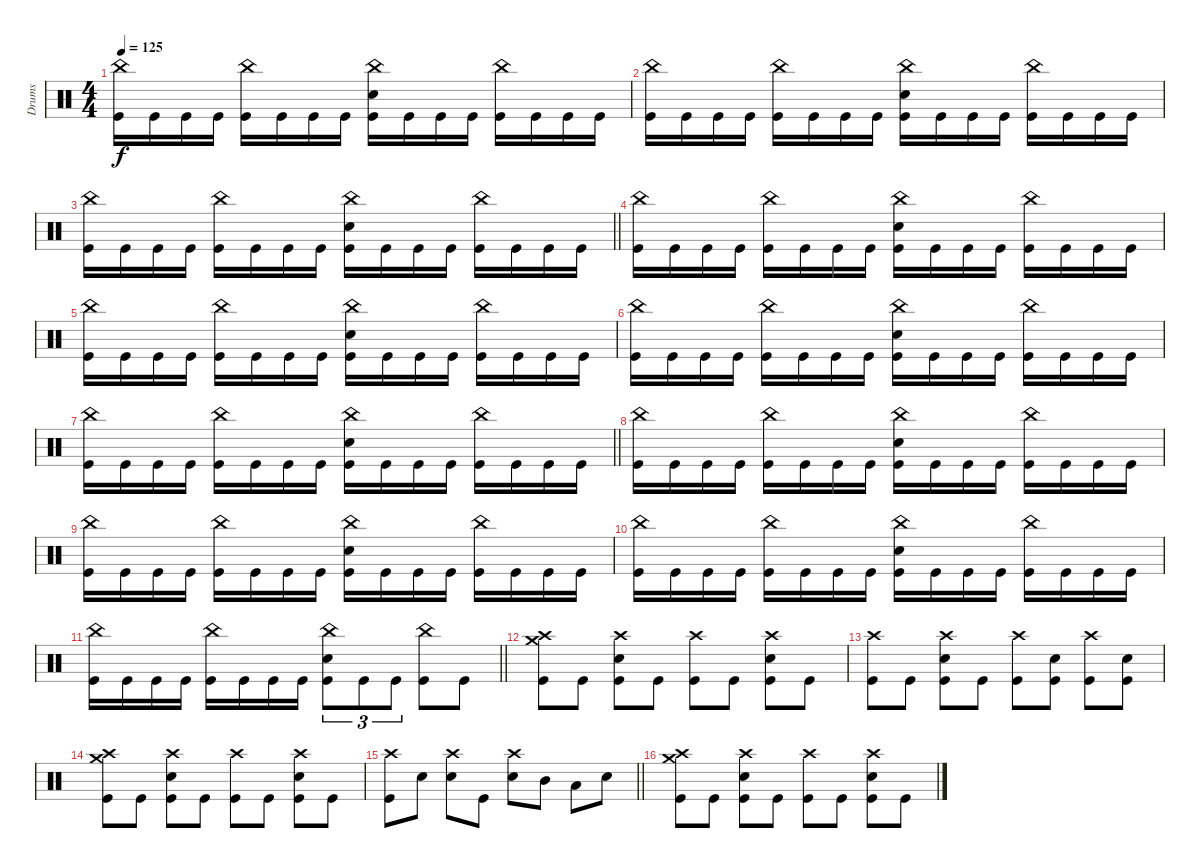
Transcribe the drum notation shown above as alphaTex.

\track ("Drums" "Drums") {instrument percussion}
\staff
\articulation defaults
\ts (4 4)
\tempo 125
\clef neutral
\ks c
("China (hit)" "Kick (hit)").16{dy f} "Kick (hit)".16 "Kick (hit)".16 "Kick (hit)".16 ("China (hit)" "Kick (hit)").16 "Kick (hit)".16 "Kick (hit)".16 "Kick (hit)".16 ("China (hit)" "Electric Snare (hit)" "Kick (hit)").16 "Kick (hit)".16 "Kick (hit)".16 "Kick (hit)".16 ("China (hit)" "Kick (hit)").16 "Kick (hit)".16 "Kick (hit)".16 "Kick (hit)".16 |
("China (hit)" "Kick (hit)").16 "Kick (hit)".16 "Kick (hit)".16 "Kick (hit)".16 ("China (hit)" "Kick (hit)").16 "Kick (hit)".16 "Kick (hit)".16 "Kick (hit)".16 ("China (hit)" "Electric Snare (hit)" "Kick (hit)").16 "Kick (hit)".16 "Kick (hit)".16 "Kick (hit)".16 ("China (hit)" "Kick (hit)").16 "Kick (hit)".16 "Kick (hit)".16 "Kick (hit)".16 |
\barLineRight lightlight
("China (hit)" "Kick (hit)").16 "Kick (hit)".16 "Kick (hit)".16 "Kick (hit)".16 ("China (hit)" "Kick (hit)").16 "Kick (hit)".16 "Kick (hit)".16 "Kick (hit)".16 ("China (hit)" "Electric Snare (hit)" "Kick (hit)").16 "Kick (hit)".16 "Kick (hit)".16 "Kick (hit)".16 ("China (hit)" "Kick (hit)").16 "Kick (hit)".16 "Kick (hit)".16 "Kick (hit)".16 |
("China (hit)" "Kick (hit)").16 "Kick (hit)".16 "Kick (hit)".16 "Kick (hit)".16 ("China (hit)" "Kick (hit)").16 "Kick (hit)".16 "Kick (hit)".16 "Kick (hit)".16 ("China (hit)" "Electric Snare (hit)" "Kick (hit)").16 "Kick (hit)".16 "Kick (hit)".16 "Kick (hit)".16 ("China (hit)" "Kick (hit)").16 "Kick (hit)".16 "Kick (hit)".16 "Kick (hit)".16 |
("China (hit)" "Kick (hit)").16 "Kick (hit)".16 "Kick (hit)".16 "Kick (hit)".16 ("China (hit)" "Kick (hit)").16 "Kick (hit)".16 "Kick (hit)".16 "Kick (hit)".16 ("China (hit)" "Electric Snare (hit)" "Kick (hit)").16 "Kick (hit)".16 "Kick (hit)".16 "Kick (hit)".16 ("China (hit)" "Kick (hit)").16 "Kick (hit)".16 "Kick (hit)".16 "Kick (hit)".16 |
("China (hit)" "Kick (hit)").16 "Kick (hit)".16 "Kick (hit)".16 "Kick (hit)".16 ("China (hit)" "Kick (hit)").16 "Kick (hit)".16 "Kick (hit)".16 "Kick (hit)".16 ("China (hit)" "Electric Snare (hit)" "Kick (hit)").16 "Kick (hit)".16 "Kick (hit)".16 "Kick (hit)".16 ("China (hit)" "Kick (hit)").16 "Kick (hit)".16 "Kick (hit)".16 "Kick (hit)".16 |
\barLineRight lightlight
("China (hit)" "Kick (hit)").16 "Kick (hit)".16 "Kick (hit)".16 "Kick (hit)".16 ("China (hit)" "Kick (hit)").16 "Kick (hit)".16 "Kick (hit)".16 "Kick (hit)".16 ("China (hit)" "Electric Snare (hit)" "Kick (hit)").16 "Kick (hit)".16 "Kick (hit)".16 "Kick (hit)".16 ("China (hit)" "Kick (hit)").16 "Kick (hit)".16 "Kick (hit)".16 "Kick (hit)".16 |
("China (hit)" "Kick (hit)").16 "Kick (hit)".16 "Kick (hit)".16 "Kick (hit)".16 ("China (hit)" "Kick (hit)").16 "Kick (hit)".16 "Kick (hit)".16 "Kick (hit)".16 ("China (hit)" "Electric Snare (hit)" "Kick (hit)").16 "Kick (hit)".16 "Kick (hit)".16 "Kick (hit)".16 ("China (hit)" "Kick (hit)").16 "Kick (hit)".16 "Kick (hit)".16 "Kick (hit)".16 |
("China (hit)" "Kick (hit)").16 "Kick (hit)".16 "Kick (hit)".16 "Kick (hit)".16 ("China (hit)" "Kick (hit)").16 "Kick (hit)".16 "Kick (hit)".16 "Kick (hit)".16 ("China (hit)" "Electric Snare (hit)" "Kick (hit)").16 "Kick (hit)".16 "Kick (hit)".16 "Kick (hit)".16 ("China (hit)" "Kick (hit)").16 "Kick (hit)".16 "Kick (hit)".16 "Kick (hit)".16 |
("China (hit)" "Kick (hit)").16 "Kick (hit)".16 "Kick (hit)".16 "Kick (hit)".16 ("China (hit)" "Kick (hit)").16 "Kick (hit)".16 "Kick (hit)".16 "Kick (hit)".16 ("China (hit)" "Electric Snare (hit)" "Kick (hit)").16 "Kick (hit)".16 "Kick (hit)".16 "Kick (hit)".16 ("China (hit)" "Kick (hit)").16 "Kick (hit)".16 "Kick (hit)".16 "Kick (hit)".16 |
\barLineRight lightlight
("China (hit)" "Kick (hit)").16 "Kick (hit)".16 "Kick (hit)".16 "Kick (hit)".16 ("China (hit)" "Kick (hit)").16 "Kick (hit)".16 "Kick (hit)".16 "Kick (hit)".16 ("China (hit)" "Electric Snare (hit)" "Kick (hit)").8{tu (3 2)} "Kick (hit)".8{tu (3 2)} "Kick (hit)".8{tu (3 2)} ("China (hit)" "Kick (hit)").8 "Kick (hit)".8 |
("Crash high (hit)" "Crash medium (hit)" "Kick (hit)").8 "Kick (hit)".8 ("Crash high (hit)" "Electric Snare (hit)" "Kick (hit)").8 "Kick (hit)".8 ("Crash high (hit)" "Kick (hit)").8 "Kick (hit)".8 ("Crash high (hit)" "Electric Snare (hit)" "Kick (hit)").8 "Kick (hit)".8 |
("Crash high (hit)" "Kick (hit)").8 "Kick (hit)".8 ("Crash high (hit)" "Electric Snare (hit)" "Kick (hit)").8 "Kick (hit)".8 ("Crash high (hit)" "Kick (hit)").8 ("Electric Snare (hit)" "Kick (hit)").8 ("Crash high (hit)" "Kick (hit)").8 ("Electric Snare (hit)" "Kick (hit)").8 |
("Crash high (hit)" "Crash medium (hit)" "Kick (hit)").8 "Kick (hit)".8 ("Crash high (hit)" "Electric Snare (hit)" "Kick (hit)").8 "Kick (hit)".8 ("Crash high (hit)" "Kick (hit)").8 "Kick (hit)".8 ("Crash high (hit)" "Electric Snare (hit)" "Kick (hit)").8 "Kick (hit)".8 |
\barLineRight lightlight
("Crash high (hit)" "Kick (hit)").8 "Electric Snare (hit)".8 ("Crash high (hit)" "Electric Snare (hit)").8 "Kick (hit)".8 ("Crash high (hit)" "Electric Snare (hit)").8 "Mid Tom (hit)".8 "Low Tom (hit)".8 "Electric Snare (hit)".8 |
("Crash high (hit)" "Crash medium (hit)" "Kick (hit)").8 "Kick (hit)".8 ("Crash high (hit)" "Electric Snare (hit)" "Kick (hit)").8 "Kick (hit)".8 ("Crash high (hit)" "Kick (hit)").8 "Kick (hit)".8 ("Crash high (hit)" "Electric Snare (hit)" "Kick (hit)").8 "Kick (hit)".8
